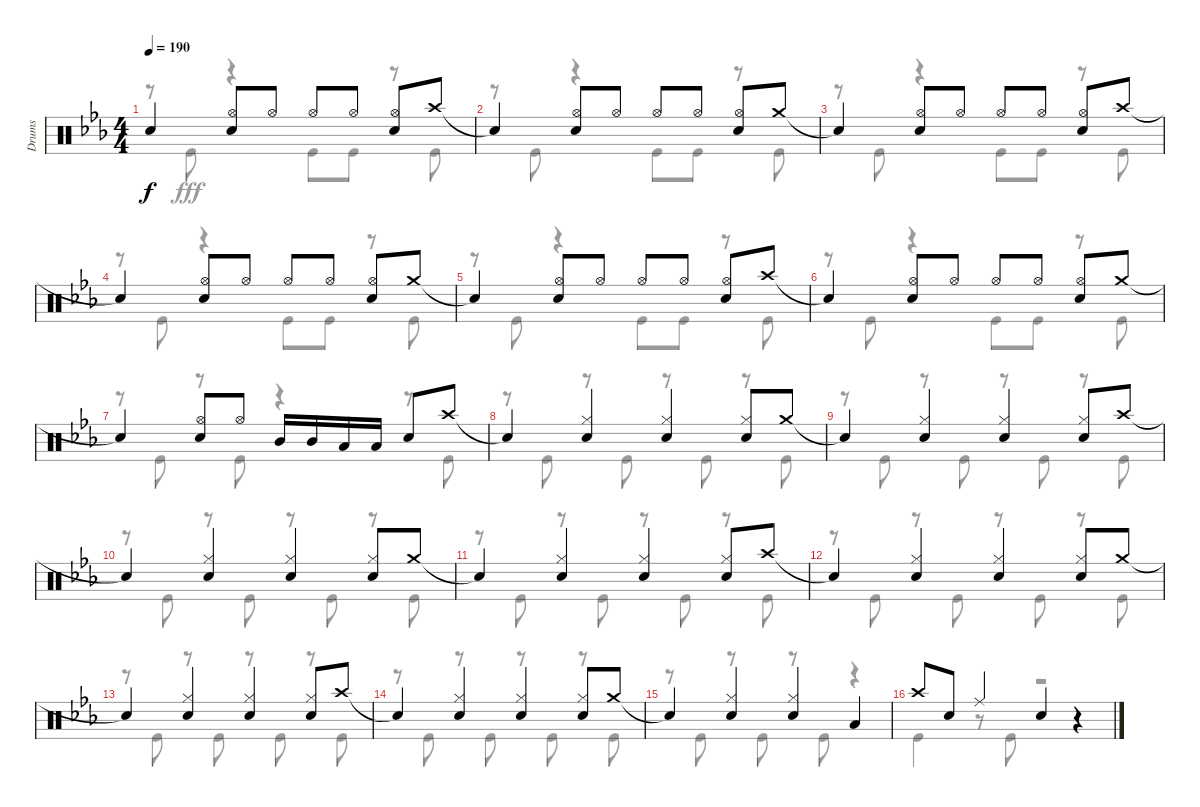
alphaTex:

\track ("Drums" "Drums") {instrument percussion}
\staff {score}
\articulation defaults
\voice
\ts (4 4)
\tempo 190
\clef neutral
\ks eb "Snare (hit)"{t}.4{dy f}
("Hi-Hat (open)" "Snare (hit) 2").8 "Hi-Hat (open)".8 "Hi-Hat (open)".8 "Hi-Hat (open)".8 ("Hi-Hat (open)" "Snare (hit) 2").8 "Crash high (hit)".8 |
"Snare (hit)"{t}.4 ("Hi-Hat (open)" "Snare (hit) 2").8 "Hi-Hat (open)".8 "Hi-Hat (open)".8 "Hi-Hat (open)".8 ("Hi-Hat (open)" "Snare (hit) 2").8 "Crash medium (hit)".8 |
"Snare (hit)"{t}.4 ("Hi-Hat (open)" "Snare (hit) 2").8 "Hi-Hat (open)".8 "Hi-Hat (open)".8 "Hi-Hat (open)".8 ("Hi-Hat (open)" "Snare (hit) 2").8 "Crash high (hit)".8 |
"Snare (hit)"{t}.4 ("Hi-Hat (open)" "Snare (hit) 2").8 "Hi-Hat (open)".8 "Hi-Hat (open)".8 "Hi-Hat (open)".8 ("Hi-Hat (open)" "Snare (hit) 2").8 "Crash medium (hit)".8 |
"Snare (hit)"{t}.4 ("Hi-Hat (open)" "Snare (hit) 2").8 "Hi-Hat (open)".8 "Hi-Hat (open)".8 "Hi-Hat (open)".8 ("Hi-Hat (open)" "Snare (hit) 2").8 "Crash high (hit)".8 |
"Snare (hit)"{t}.4 ("Hi-Hat (open)" "Snare (hit) 2").8 "Hi-Hat (open)".8 "Hi-Hat (open)".8 "Hi-Hat (open)".8 ("Hi-Hat (open)" "Snare (hit) 2").8 "Crash medium (hit)".8 |
"Snare (hit)"{t}.4 ("Hi-Hat (open)" "Snare (hit) 2").8 "Hi-Hat (open)".8 "Mid Tom (hit)".16 "Mid Tom (hit)".16 "Low Tom (hit)".16 "Low Tom (hit)".16 "Snare (hit) 2".8 "Crash high (hit)".8 |
"Snare (hit)"{t}.4 ("Hi-Hat (closed)" "Snare (hit) 2").4 ("Hi-Hat (closed)" "Snare (hit) 2").4 ("Hi-Hat (closed)" "Snare (hit) 2").8 "Crash medium (hit)".8 |
"Snare (hit)"{t}.4 ("Hi-Hat (closed)" "Snare (hit) 2").4 ("Hi-Hat (closed)" "Snare (hit) 2").4 ("Hi-Hat (closed)" "Snare (hit) 2").8 "Crash high (hit)".8 |
"Snare (hit)"{t}.4 ("Hi-Hat (closed)" "Snare (hit) 2").4 ("Hi-Hat (closed)" "Snare (hit) 2").4 ("Hi-Hat (closed)" "Snare (hit) 2").8 "Crash medium (hit)".8 |
"Snare (hit)"{t}.4 ("Hi-Hat (closed)" "Snare (hit) 2").4 ("Hi-Hat (closed)" "Snare (hit) 2").4 ("Hi-Hat (closed)" "Snare (hit) 2").8 "Crash high (hit)".8 |
"Snare (hit)"{t}.4 ("Hi-Hat (closed)" "Snare (hit) 2").4 ("Hi-Hat (closed)" "Snare (hit) 2").4 ("Hi-Hat (closed)" "Snare (hit) 2").8 "Crash medium (hit)".8 |
"Snare (hit)"{t}.4 ("Hi-Hat (closed)" "Snare (hit) 2").4 ("Hi-Hat (closed)" "Snare (hit) 2").4 ("Hi-Hat (closed)" "Snare (hit) 2").8 "Crash high (hit)".8 |
"Snare (hit)"{t}.4 ("Hi-Hat (closed)" "Snare (hit) 2").4 ("Hi-Hat (closed)" "Snare (hit) 2").4 ("Hi-Hat (closed)" "Snare (hit) 2").8 "Crash medium (hit)".8 |
"Snare (hit)"{t}.4 ("Hi-Hat (closed)" "Snare (hit) 2").4 ("Hi-Hat (closed)" "Snare (hit) 2").4 "Low Tom (hit)".4 |
"Crash high (hit)".8 "Snare (hit) 2".8 "Ride (middle)".4 "Snare (hit) 2".4 r.4
\voice
\clef neutral
\ottava regular
\simile none
\ks eb
r.8{dy fff} "Kick (hit)".8 r.4 "Kick (hit)".8 "Kick (hit)".8 r.8 "Kick (hit)".8 |
r.8 "Kick (hit)".8 r.4 "Kick (hit)".8 "Kick (hit)".8 r.8 "Kick (hit)".8 |
r.8 "Kick (hit)".8 r.4 "Kick (hit)".8 "Kick (hit)".8 r.8 "Kick (hit)".8 |
r.8 "Kick (hit)".8 r.4 "Kick (hit)".8 "Kick (hit)".8 r.8 "Kick (hit)".8 |
r.8 "Kick (hit)".8 r.4 "Kick (hit)".8 "Kick (hit)".8 r.8 "Kick (hit)".8 |
r.8 "Kick (hit)".8 r.4 "Kick (hit)".8 "Kick (hit)".8 r.8 "Kick (hit)".8 |
r.8 "Kick (hit)".8 r.8 "Kick (hit)".8 r.4 r.8 "Kick (hit)".8 |
r.8 "Kick (hit)".8 r.8 "Kick (hit)".8 r.8 "Kick (hit)".8 r.8 "Kick (hit)".8 |
r.8 "Kick (hit)".8 r.8 "Kick (hit)".8 r.8 "Kick (hit)".8 r.8 "Kick (hit)".8 |
r.8 "Kick (hit)".8 r.8 "Kick (hit)".8 r.8 "Kick (hit)".8 r.8 "Kick (hit)".8 |
r.8 "Kick (hit)".8 r.8 "Kick (hit)".8 r.8 "Kick (hit)".8 r.8 "Kick (hit)".8 |
r.8 "Kick (hit)".8 r.8 "Kick (hit)".8 r.8 "Kick (hit)".8 r.8 "Kick (hit)".8 |
r.8 "Kick (hit)".8 r.8 "Kick (hit)".8 r.8 "Kick (hit)".8 r.8 "Kick (hit)".8 |
r.8 "Kick (hit)".8 r.8 "Kick (hit)".8 r.8 "Kick (hit)".8 r.8 "Kick (hit)".8 |
r.8 "Kick (hit)".8 r.8 "Kick (hit)".8 r.8 "Kick (hit)".8 r.4 |
"Kick (hit)".4 r.8 "Kick (hit)".8 r.2
